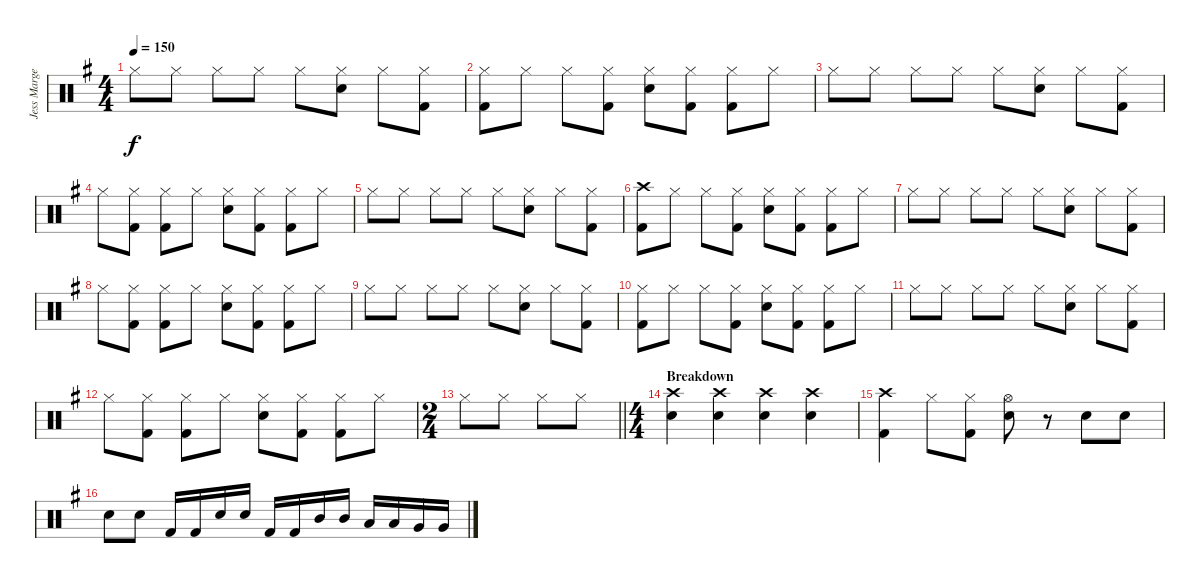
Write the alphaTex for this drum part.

\track ("Jess Margera" "Jess Marge") {instrument percussion}
\staff {score}
\articulation defaults
\ts (4 4)
\tempo 150
\clef neutral
\ks g "Hi-Hat (closed)".8{dy f} "Hi-Hat (closed)".8 "Hi-Hat (closed)".8 "Hi-Hat (closed)".8 "Hi-Hat (closed)".8
("Hi-Hat (closed)" "Electric Snare (hit)").8 "Hi-Hat (closed)".8 ("Hi-Hat (closed)" "Kick (hit) 2").8 |
("Hi-Hat (closed)" "Kick (hit) 2").8 "Hi-Hat (closed)".8 "Hi-Hat (closed)".8 ("Hi-Hat (closed)" "Kick (hit) 2").8 ("Hi-Hat (closed)" "Electric Snare (hit)").8 ("Hi-Hat (closed)" "Kick (hit) 2").8 ("Hi-Hat (closed)" "Kick (hit) 2").8 "Hi-Hat (closed)".8 |
"Hi-Hat (closed)".8 "Hi-Hat (closed)".8 "Hi-Hat (closed)".8 "Hi-Hat (closed)".8 "Hi-Hat (closed)".8 ("Hi-Hat (closed)" "Electric Snare (hit)").8 "Hi-Hat (closed)".8 ("Hi-Hat (closed)" "Kick (hit) 2").8 |
"Hi-Hat (closed)".8 ("Hi-Hat (closed)" "Kick (hit) 2").8 ("Hi-Hat (closed)" "Kick (hit) 2").8 "Hi-Hat (closed)".8 ("Hi-Hat (closed)" "Electric Snare (hit)").8 ("Hi-Hat (closed)" "Kick (hit) 2").8 ("Hi-Hat (closed)" "Kick (hit) 2").8 "Hi-Hat (closed)".8 |
"Hi-Hat (closed)".8 "Hi-Hat (closed)".8 "Hi-Hat (closed)".8 "Hi-Hat (closed)".8 "Hi-Hat (closed)".8 ("Hi-Hat (closed)" "Electric Snare (hit)").8 "Hi-Hat (closed)".8 ("Hi-Hat (closed)" "Kick (hit) 2").8 |
("Crash high (hit)" "Kick (hit) 2").8 "Hi-Hat (closed)".8 "Hi-Hat (closed)".8 ("Hi-Hat (closed)" "Kick (hit) 2").8 ("Hi-Hat (closed)" "Electric Snare (hit)").8 ("Hi-Hat (closed)" "Kick (hit) 2").8 ("Hi-Hat (closed)" "Kick (hit) 2").8 "Hi-Hat (closed)".8 |
"Hi-Hat (closed)".8 "Hi-Hat (closed)".8 "Hi-Hat (closed)".8 "Hi-Hat (closed)".8 "Hi-Hat (closed)".8 ("Hi-Hat (closed)" "Electric Snare (hit)").8 "Hi-Hat (closed)".8 ("Hi-Hat (closed)" "Kick (hit) 2").8 |
"Hi-Hat (closed)".8 ("Hi-Hat (closed)" "Kick (hit) 2").8 ("Hi-Hat (closed)" "Kick (hit) 2").8 "Hi-Hat (closed)".8 ("Hi-Hat (closed)" "Electric Snare (hit)").8 ("Hi-Hat (closed)" "Kick (hit) 2").8 ("Hi-Hat (closed)" "Kick (hit) 2").8 "Hi-Hat (closed)".8 |
"Hi-Hat (closed)".8 "Hi-Hat (closed)".8 "Hi-Hat (closed)".8 "Hi-Hat (closed)".8 "Hi-Hat (closed)".8 ("Hi-Hat (closed)" "Electric Snare (hit)").8 "Hi-Hat (closed)".8 ("Hi-Hat (closed)" "Kick (hit) 2").8 |
("Hi-Hat (closed)" "Kick (hit) 2").8 "Hi-Hat (closed)".8 "Hi-Hat (closed)".8 ("Hi-Hat (closed)" "Kick (hit) 2").8 ("Hi-Hat (closed)" "Electric Snare (hit)").8 ("Hi-Hat (closed)" "Kick (hit) 2").8 ("Hi-Hat (closed)" "Kick (hit) 2").8 "Hi-Hat (closed)".8 |
"Hi-Hat (closed)".8 "Hi-Hat (closed)".8 "Hi-Hat (closed)".8 "Hi-Hat (closed)".8 "Hi-Hat (closed)".8 ("Hi-Hat (closed)" "Electric Snare (hit)").8 "Hi-Hat (closed)".8 ("Hi-Hat (closed)" "Kick (hit) 2").8 |
"Hi-Hat (closed)".8 ("Hi-Hat (closed)" "Kick (hit) 2").8 ("Hi-Hat (closed)" "Kick (hit) 2").8 "Hi-Hat (closed)".8 ("Hi-Hat (closed)" "Electric Snare (hit)").8 ("Hi-Hat (closed)" "Kick (hit) 2").8 ("Hi-Hat (closed)" "Kick (hit) 2").8 "Hi-Hat (closed)".8 |
\ts (2 4)
\barLineRight lightlight "Hi-Hat (closed)".8 "Hi-Hat (closed)".8 "Hi-Hat (closed)".8 "Hi-Hat (closed)".8
|
\ts (4 4)
\section ("" "Breakdown")
("Crash high (hit)" "Electric Snare (hit)").4 ("Crash high (hit)" "Electric Snare (hit)").4 ("Crash high (hit)" "Electric Snare (hit)").4 ("Crash high (hit)" "Electric Snare (hit)").4 |
("Crash high (hit)" "Kick (hit) 2").4 "Hi-Hat (closed)".8 ("Hi-Hat (closed)" "Kick (hit) 2").8 ("Hi-Hat (open)" "Electric Snare (hit)").8 r.8 "Electric Snare (hit)".8 "Electric Snare (hit)".8 |
"Electric Snare (hit)".8 "Electric Snare (hit)".8 "Kick (hit) 2".16 "Kick (hit) 2".16 "Electric Snare (hit)".16 "Electric Snare (hit)".16 "Kick (hit) 2".16 "Kick (hit) 2".16 "Mid Tom (hit)".16 "Mid Tom (hit)".16 "Low Tom (hit)".16 "Low Tom (hit)".16 "Very Low Tom (hit)".16 "Very Low Tom (hit)".16
